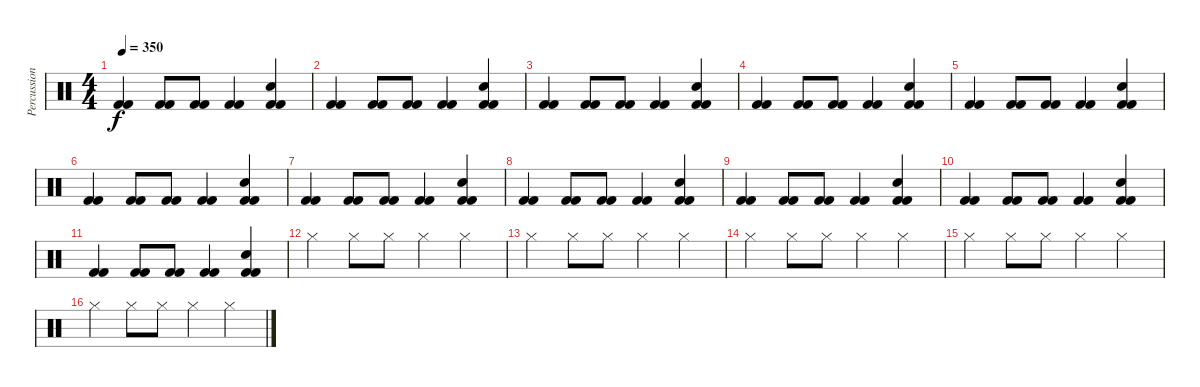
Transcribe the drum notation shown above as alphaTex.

\track ("Percussions" "Percussion") {instrument percussion}
\staff {score}
\articulation defaults
\ts (4 4)
\tempo 350
\clef neutral
\ks c
("Kick (hit) 2" "Kick (hit) 2").4{dy f} ("Kick (hit) 2" "Kick (hit) 2").8 ("Kick (hit) 2" "Kick (hit) 2").8 ("Kick (hit) 2" "Kick (hit) 2").4 ("Kick (hit) 2" "Kick (hit) 2" "Snare (hit) 2").4 |
("Kick (hit) 2" "Kick (hit) 2").4 ("Kick (hit) 2" "Kick (hit) 2").8 ("Kick (hit) 2" "Kick (hit) 2").8 ("Kick (hit) 2" "Kick (hit) 2").4 ("Kick (hit) 2" "Kick (hit) 2" "Snare (hit) 2").4 |
("Kick (hit) 2" "Kick (hit) 2").4 ("Kick (hit) 2" "Kick (hit) 2").8 ("Kick (hit) 2" "Kick (hit) 2").8 ("Kick (hit) 2" "Kick (hit) 2").4 ("Kick (hit) 2" "Kick (hit) 2" "Snare (hit) 2").4 |
("Kick (hit) 2" "Kick (hit) 2").4 ("Kick (hit) 2" "Kick (hit) 2").8 ("Kick (hit) 2" "Kick (hit) 2").8 ("Kick (hit) 2" "Kick (hit) 2").4 ("Kick (hit) 2" "Kick (hit) 2" "Snare (hit) 2").4 |
("Kick (hit) 2" "Kick (hit) 2").4 ("Kick (hit) 2" "Kick (hit) 2").8 ("Kick (hit) 2" "Kick (hit) 2").8 ("Kick (hit) 2" "Kick (hit) 2").4 ("Kick (hit) 2" "Kick (hit) 2" "Snare (hit) 2").4 |
("Kick (hit) 2" "Kick (hit) 2").4 ("Kick (hit) 2" "Kick (hit) 2").8 ("Kick (hit) 2" "Kick (hit) 2").8 ("Kick (hit) 2" "Kick (hit) 2").4 ("Kick (hit) 2" "Kick (hit) 2" "Snare (hit) 2").4 |
("Kick (hit) 2" "Kick (hit) 2").4 ("Kick (hit) 2" "Kick (hit) 2").8 ("Kick (hit) 2" "Kick (hit) 2").8 ("Kick (hit) 2" "Kick (hit) 2").4 ("Kick (hit) 2" "Kick (hit) 2" "Snare (hit) 2").4 |
("Kick (hit) 2" "Kick (hit) 2").4 ("Kick (hit) 2" "Kick (hit) 2").8 ("Kick (hit) 2" "Kick (hit) 2").8 ("Kick (hit) 2" "Kick (hit) 2").4 ("Kick (hit) 2" "Kick (hit) 2" "Snare (hit) 2").4 |
("Kick (hit) 2" "Kick (hit) 2").4 ("Kick (hit) 2" "Kick (hit) 2").8 ("Kick (hit) 2" "Kick (hit) 2").8 ("Kick (hit) 2" "Kick (hit) 2").4 ("Kick (hit) 2" "Kick (hit) 2" "Snare (hit) 2").4 |
("Kick (hit) 2" "Kick (hit) 2").4 ("Kick (hit) 2" "Kick (hit) 2").8 ("Kick (hit) 2" "Kick (hit) 2").8 ("Kick (hit) 2" "Kick (hit) 2").4 ("Kick (hit) 2" "Kick (hit) 2" "Snare (hit) 2").4 |
("Kick (hit) 2" "Kick (hit) 2").4 ("Kick (hit) 2" "Kick (hit) 2").8 ("Kick (hit) 2" "Kick (hit) 2").8 ("Kick (hit) 2" "Kick (hit) 2").4 ("Kick (hit) 2" "Kick (hit) 2" "Snare (hit) 2").4 |
"Hi-Hat (closed)".4 "Hi-Hat (closed)".8 "Hi-Hat (closed)".8 "Hi-Hat (closed)".4 "Hi-Hat (closed)".4 |
"Hi-Hat (closed)".4 "Hi-Hat (closed)".8 "Hi-Hat (closed)".8 "Hi-Hat (closed)".4 "Hi-Hat (closed)".4 |
"Hi-Hat (closed)".4 "Hi-Hat (closed)".8 "Hi-Hat (closed)".8 "Hi-Hat (closed)".4 "Hi-Hat (closed)".4 |
"Hi-Hat (closed)".4 "Hi-Hat (closed)".8 "Hi-Hat (closed)".8 "Hi-Hat (closed)".4 "Hi-Hat (closed)".4 |
"Hi-Hat (closed)".4 "Hi-Hat (closed)".8 "Hi-Hat (closed)".8 "Hi-Hat (closed)".4 "Hi-Hat (closed)".4
